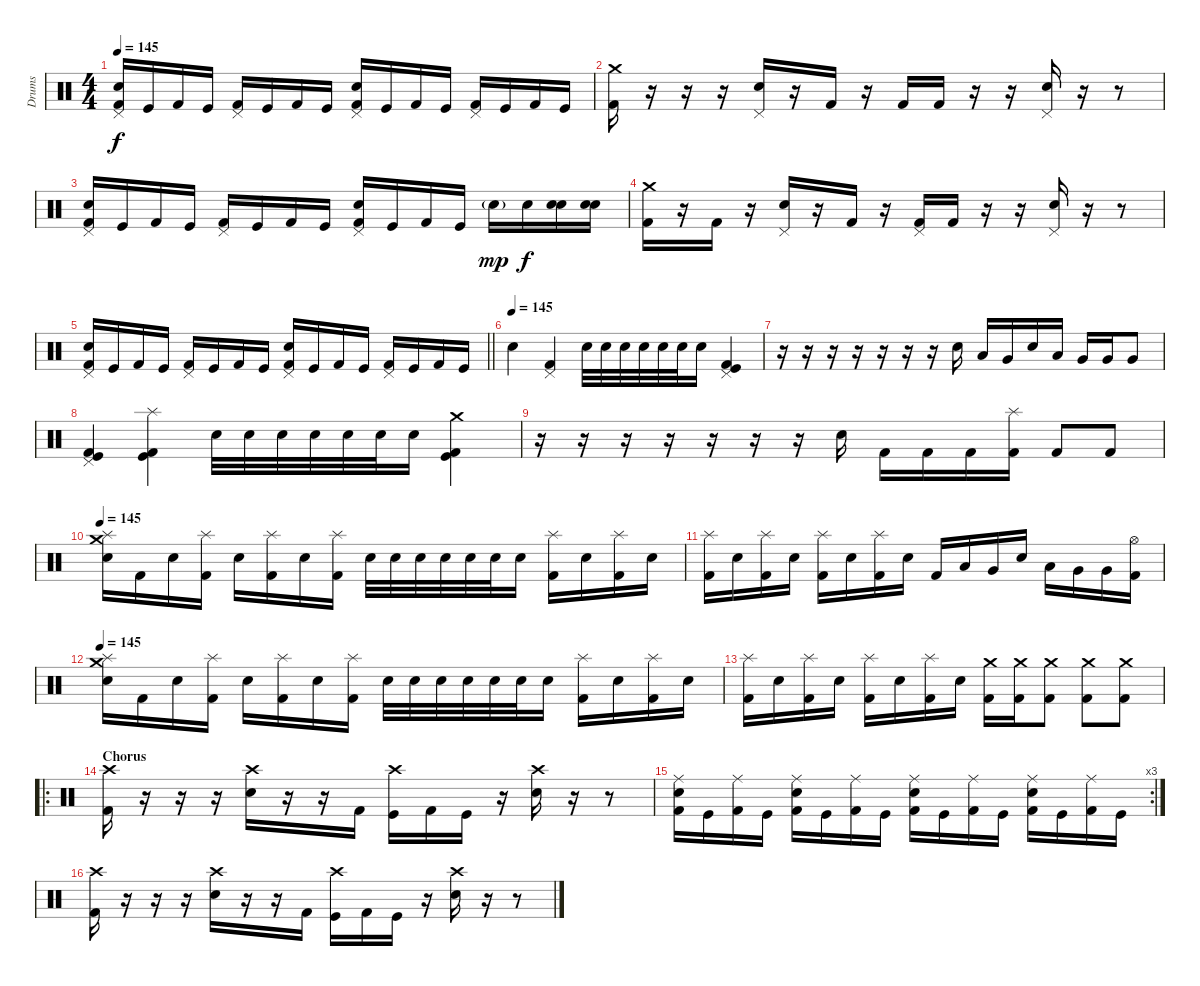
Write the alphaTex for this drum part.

\track ("Drums" "Drums") {instrument percussion}
\staff {score}
\articulation defaults
\ts (4 4)
\tempo 145
\clef neutral
\ks c
("Kick (hit) 2" "Electric Snare (hit)" "Pedal Hi-Hat (hit)").16{dy f} "Kick (hit)".16 "Kick (hit) 2".16 "Kick (hit)".16 ("Kick (hit) 2" "Pedal Hi-Hat (hit)").16 "Kick (hit)".16 "Kick (hit) 2".16 "Kick (hit)".16 ("Kick (hit) 2" "Electric Snare (hit)" "Pedal Hi-Hat (hit)").16 "Kick (hit)".16 "Kick (hit) 2".16 "Kick (hit)".16 ("Kick (hit) 2" "Pedal Hi-Hat (hit)").16 "Kick (hit)".16 "Kick (hit) 2".16 "Kick (hit)".16 |
("Kick (hit) 2" "Crash medium (hit)").16 r.16 r.16 r.16 ("Electric Snare (hit)" "Pedal Hi-Hat (hit)").16 r.16 "Kick (hit) 2".16 r.16 "Kick (hit) 2".16 "Kick (hit) 2".16 r.16 r.16 ("Electric Snare (hit)" "Pedal Hi-Hat (hit)").16 r.16 r.8 |
("Kick (hit) 2" "Electric Snare (hit)" "Pedal Hi-Hat (hit)").16 "Kick (hit)".16 "Kick (hit) 2".16 "Kick (hit)".16 ("Kick (hit) 2" "Pedal Hi-Hat (hit)").16 "Kick (hit)".16 "Kick (hit) 2".16 "Kick (hit)".16 ("Kick (hit) 2" "Electric Snare (hit)" "Pedal Hi-Hat (hit)").16 "Kick (hit)".16 "Kick (hit) 2".16 "Kick (hit)".16 "Electric Snare (hit)"{g}.16{dy mp} "Electric Snare (hit)".16{dy f} ("Electric Snare (hit)" "Electric Snare (hit)").16 ("Electric Snare (hit)" "Electric Snare (hit)").16 |
("Kick (hit) 2" "Crash medium (hit)").16 r.16 "Kick (hit) 2".16 r.16 ("Electric Snare (hit)" "Pedal Hi-Hat (hit)").16 r.16 "Kick (hit) 2".16 r.16 ("Kick (hit) 2" "Pedal Hi-Hat (hit)").16 "Kick (hit) 2".16 r.16 r.16 ("Electric Snare (hit)" "Pedal Hi-Hat (hit)").16 r.16 r.8 |
\barLineRight lightlight
("Kick (hit) 2" "Electric Snare (hit)" "Pedal Hi-Hat (hit)").16 "Kick (hit)".16 "Kick (hit) 2".16 "Kick (hit)".16 ("Kick (hit) 2" "Pedal Hi-Hat (hit)").16 "Kick (hit)".16 "Kick (hit) 2".16 "Kick (hit)".16 ("Kick (hit) 2" "Electric Snare (hit)" "Pedal Hi-Hat (hit)").16 "Kick (hit)".16 "Kick (hit) 2".16 "Kick (hit)".16 ("Kick (hit) 2" "Pedal Hi-Hat (hit)").16 "Kick (hit)".16 "Kick (hit) 2".16 "Kick (hit)".16 |
\tempo (145)
"Electric Snare (hit)".4 ("Kick (hit) 2" "Pedal Hi-Hat (hit)").4 "Electric Snare (hit)".32 "Electric Snare (hit)".32 "Electric Snare (hit)".32 "Electric Snare (hit)".32 "Electric Snare (hit)".32 "Electric Snare (hit)".32 "Electric Snare (hit)".16 ("Kick (hit) 2" "Kick (hit)" "Pedal Hi-Hat (hit)").4 |
r.16 r.16 r.16 r.16 r.16 r.16 r.16 "Electric Snare (hit)".16 "Low Tom (hit)".16 "Very Low Tom (hit)".16 "Electric Snare (hit)".16 "Low Tom (hit)".16 "Very Low Tom (hit)".16 "Very Low Tom (hit)".16 "Very Low Tom (hit)".8 |
("Kick (hit) 2" "Kick (hit)" "Pedal Hi-Hat (hit)").4 ("Kick (hit) 2" "Kick (hit)" "Splash (hit)").4 "Electric Snare (hit)".32 "Electric Snare (hit)".32 "Electric Snare (hit)".32 "Electric Snare (hit)".32 "Electric Snare (hit)".32 "Electric Snare (hit)".32 "Electric Snare (hit)".16 ("Kick (hit) 2" "Kick (hit)" "Crash medium (hit)").4 |
r.16 r.16 r.16 r.16 r.16 r.16 r.16 "Electric Snare (hit)".16 "Kick (hit) 2".16 "Kick (hit) 2".16 "Kick (hit) 2".16 ("Kick (hit) 2" "Splash (hit)").16 "Kick (hit) 2".8 "Kick (hit) 2".8 |
\tempo 145
("Electric Snare (hit)" "Crash medium (hit)" "Splash (hit)").16 "Kick (hit) 2".16 "Electric Snare (hit)".16 ("Kick (hit) 2" "Splash (hit)").16 "Electric Snare (hit)".16 ("Kick (hit) 2" "Splash (hit)").16 "Electric Snare (hit)".16 ("Kick (hit) 2" "Splash (hit)").16 "Electric Snare (hit)".32 "Electric Snare (hit)".32 "Electric Snare (hit)".32 "Electric Snare (hit)".32 "Electric Snare (hit)".32 "Electric Snare (hit)".32 "Electric Snare (hit)".16 ("Kick (hit) 2" "Splash (hit)").16 "Electric Snare (hit)".16 ("Kick (hit) 2" "Splash (hit)").16 "Electric Snare (hit)".16 |
("Kick (hit) 2" "Splash (hit)").16 "Electric Snare (hit)".16 ("Kick (hit) 2" "Splash (hit)").16 "Electric Snare (hit)".16 ("Kick (hit) 2" "Splash (hit)").16 "Electric Snare (hit)".16 ("Kick (hit) 2" "Splash (hit)").16 "Electric Snare (hit)".16 "Kick (hit) 2".16 "Low Tom (hit)".16 "Very Low Tom (hit)".16 "Electric Snare (hit)".16 "Low Tom (hit)".16 "Very Low Tom (hit)".16 "Very Low Tom (hit)".16 ("Kick (hit) 2" "Hi-Hat (open)").16 |
\tempo 145
("Electric Snare (hit)" "Crash medium (hit)" "Splash (hit)").16 "Kick (hit) 2".16 "Electric Snare (hit)".16 ("Kick (hit) 2" "Splash (hit)").16 "Electric Snare (hit)".16 ("Kick (hit) 2" "Splash (hit)").16 "Electric Snare (hit)".16 ("Kick (hit) 2" "Splash (hit)").16 "Electric Snare (hit)".32 "Electric Snare (hit)".32 "Electric Snare (hit)".32 "Electric Snare (hit)".32 "Electric Snare (hit)".32 "Electric Snare (hit)".32 "Electric Snare (hit)".16 ("Kick (hit) 2" "Splash (hit)").16 "Electric Snare (hit)".16 ("Kick (hit) 2" "Splash (hit)").16 "Electric Snare (hit)".16 |
("Kick (hit) 2" "Splash (hit)").16 "Electric Snare (hit)".16 ("Kick (hit) 2" "Splash (hit)").16 "Electric Snare (hit)".16 ("Kick (hit) 2" "Splash (hit)").16 "Electric Snare (hit)".16 ("Kick (hit) 2" "Splash (hit)").16 "Electric Snare (hit)".16 ("Kick (hit) 2" "Crash medium (hit)").16 ("Kick (hit) 2" "Crash medium (hit)").16 ("Kick (hit) 2" "Crash medium (hit)").8 ("Kick (hit) 2" "Crash medium (hit)").8 ("Kick (hit) 2" "Crash medium (hit)").8 |
\ro
\section ("" "Chorus")
("Kick (hit) 2" "Crash high (hit)").16 r.16 r.16 r.16 ("Electric Snare (hit)" "Crash high (hit)").16 r.16 r.16 "Kick (hit) 2".16 ("Kick (hit)" "Crash high (hit)").16 "Kick (hit) 2".16 "Kick (hit)".16 r.16 ("Electric Snare (hit)" "Crash high (hit)").16 r.16 r.8 |
\rc 3
("Kick (hit) 2" "Electric Snare (hit)" "Ride (middle)").16 "Kick (hit)".16 ("Kick (hit) 2" "Ride (middle)").16 "Kick (hit)".16 ("Kick (hit) 2" "Electric Snare (hit)" "Ride (middle)").16 "Kick (hit)".16 ("Kick (hit) 2" "Ride (middle)").16 "Kick (hit)".16 ("Kick (hit) 2" "Electric Snare (hit)" "Ride (middle)").16 "Kick (hit)".16 ("Kick (hit) 2" "Ride (middle)").16 "Kick (hit)".16 ("Kick (hit) 2" "Electric Snare (hit)" "Ride (middle)").16 "Kick (hit)".16 ("Kick (hit) 2" "Ride (middle)").16 "Kick (hit)".16 |
("Kick (hit) 2" "Crash high (hit)").16 r.16 r.16 r.16 ("Electric Snare (hit)" "Crash high (hit)").16 r.16 r.16 "Kick (hit) 2".16 ("Kick (hit)" "Crash high (hit)").16 "Kick (hit) 2".16 "Kick (hit)".16 r.16 ("Electric Snare (hit)" "Crash high (hit)").16 r.16 r.8
